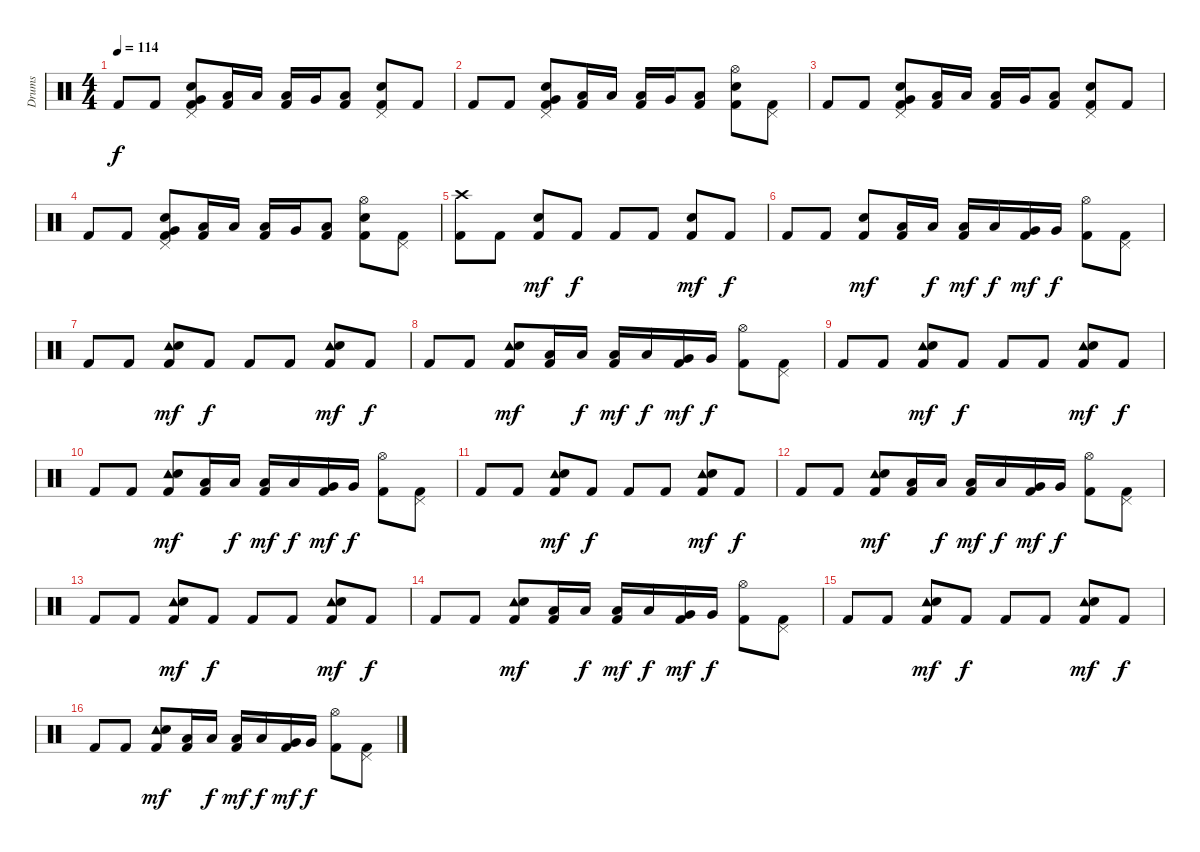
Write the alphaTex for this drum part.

\track ("Drums" "Drums") {instrument percussion}
\staff {score}
\articulation defaults
\ts (4 4)
\tempo 114
\clef neutral
\ks c "Kick (hit) 2".8{dy f} "Kick (hit) 2".8
("Pedal Hi-Hat (hit)" "Electric Snare (hit)" "Very Low Tom (hit)" "Kick (hit) 2").8 ("Low Tom (hit)" "Kick (hit) 2").16 "Low Tom (hit)".16 ("Low Tom (hit)" "Kick (hit) 2").16 "Very Low Tom (hit)".16 ("Low Floor Tom (hit)" "Kick (hit) 2").8 ("Pedal Hi-Hat (hit)" "Electric Snare (hit)" "Kick (hit) 2").8 "Kick (hit) 2".8 |
"Kick (hit) 2".8 "Kick (hit) 2".8 ("Pedal Hi-Hat (hit)" "Electric Snare (hit)" "Very Low Tom (hit)" "Kick (hit) 2").8 ("Low Tom (hit)" "Kick (hit) 2").16 "Low Tom (hit)".16 ("Low Tom (hit)" "Kick (hit) 2").16 "Very Low Tom (hit)".16 ("Low Floor Tom (hit)" "Kick (hit) 2").8 ("Hi-Hat (open)" "Electric Snare (hit)" "Kick (hit) 2").8 ("Pedal Hi-Hat (hit)" "Kick (hit) 2").8 |
"Kick (hit) 2".8 "Kick (hit) 2".8 ("Pedal Hi-Hat (hit)" "Electric Snare (hit)" "Very Low Tom (hit)" "Kick (hit) 2").8 ("Low Tom (hit)" "Kick (hit) 2").16 "Low Tom (hit)".16 ("Low Tom (hit)" "Kick (hit) 2").16 "Very Low Tom (hit)".16 ("Low Floor Tom (hit)" "Kick (hit) 2").8 ("Pedal Hi-Hat (hit)" "Electric Snare (hit)" "Kick (hit) 2").8 "Kick (hit) 2".8 |
"Kick (hit) 2".8 "Kick (hit) 2".8 ("Pedal Hi-Hat (hit)" "Electric Snare (hit)" "Very Low Tom (hit)" "Kick (hit) 2").8 ("Low Tom (hit)" "Kick (hit) 2").16 "Low Tom (hit)".16 ("Low Tom (hit)" "Kick (hit) 2").16 "Very Low Tom (hit)".16 ("Low Floor Tom (hit)" "Kick (hit) 2").8 ("Hi-Hat (open)" "Electric Snare (hit)" "Kick (hit) 2").8 ("Pedal Hi-Hat (hit)" "Kick (hit) 2").8 |
("Crash high (hit)" "Kick (hit) 2").8 "Kick (hit) 2".8 ("Electric Snare (hit)" "Kick (hit) 2").8{dy mf} "Kick (hit) 2".8{dy f} "Kick (hit) 2".8 "Kick (hit) 2".8 ("Electric Snare (hit)" "Kick (hit) 2").8{dy mf} "Kick (hit) 2".8{dy f} |
"Kick (hit) 2".8 "Kick (hit) 2".8 ("Electric Snare (hit)" "Kick (hit) 2").8{dy mf} ("Low Tom (hit)" "Kick (hit) 2").16 "Low Tom (hit)".16{dy f} ("Low Tom (hit)" "Kick (hit) 2").16{dy mf} "Low Tom (hit)".16{dy f} ("Very Low Tom (hit)" "Kick (hit) 2").16{dy mf} "Very Low Tom (hit)".16{dy f} ("Hi-Hat (open)" "Kick (hit) 2").8 ("Pedal Hi-Hat (hit)" "Kick (hit) 2").8 |
"Kick (hit) 2".8 "Kick (hit) 2".8 ("Tambourine (hit)" "Electric Snare (hit)" "Kick (hit) 2").8{dy mf} "Kick (hit) 2".8{dy f} "Kick (hit) 2".8 "Kick (hit) 2".8 ("Tambourine (hit)" "Electric Snare (hit)" "Kick (hit) 2").8{dy mf} "Kick (hit) 2".8{dy f} |
"Kick (hit) 2".8 "Kick (hit) 2".8 ("Tambourine (hit)" "Electric Snare (hit)" "Kick (hit) 2").8{dy mf} ("Low Tom (hit)" "Kick (hit) 2").16 "Low Tom (hit)".16{dy f} ("Low Tom (hit)" "Kick (hit) 2").16{dy mf} "Low Tom (hit)".16{dy f} ("Very Low Tom (hit)" "Kick (hit) 2").16{dy mf} "Very Low Tom (hit)".16{dy f} ("Hi-Hat (open)" "Kick (hit) 2").8 ("Pedal Hi-Hat (hit)" "Kick (hit) 2").8 |
"Kick (hit) 2".8 "Kick (hit) 2".8 ("Tambourine (hit)" "Electric Snare (hit)" "Kick (hit) 2").8{dy mf} "Kick (hit) 2".8{dy f} "Kick (hit) 2".8 "Kick (hit) 2".8 ("Tambourine (hit)" "Electric Snare (hit)" "Kick (hit) 2").8{dy mf} "Kick (hit) 2".8{dy f} |
"Kick (hit) 2".8 "Kick (hit) 2".8 ("Tambourine (hit)" "Electric Snare (hit)" "Kick (hit) 2").8{dy mf} ("Low Tom (hit)" "Kick (hit) 2").16 "Low Tom (hit)".16{dy f} ("Low Tom (hit)" "Kick (hit) 2").16{dy mf} "Low Tom (hit)".16{dy f} ("Very Low Tom (hit)" "Kick (hit) 2").16{dy mf} "Very Low Tom (hit)".16{dy f} ("Hi-Hat (open)" "Kick (hit) 2").8 ("Pedal Hi-Hat (hit)" "Kick (hit) 2").8 |
"Kick (hit) 2".8 "Kick (hit) 2".8 ("Tambourine (hit)" "Electric Snare (hit)" "Kick (hit) 2").8{dy mf} "Kick (hit) 2".8{dy f} "Kick (hit) 2".8 "Kick (hit) 2".8 ("Tambourine (hit)" "Electric Snare (hit)" "Kick (hit) 2").8{dy mf} "Kick (hit) 2".8{dy f} |
"Kick (hit) 2".8 "Kick (hit) 2".8 ("Tambourine (hit)" "Electric Snare (hit)" "Kick (hit) 2").8{dy mf} ("Low Tom (hit)" "Kick (hit) 2").16 "Low Tom (hit)".16{dy f} ("Low Tom (hit)" "Kick (hit) 2").16{dy mf} "Low Tom (hit)".16{dy f} ("Very Low Tom (hit)" "Kick (hit) 2").16{dy mf} "Very Low Tom (hit)".16{dy f} ("Hi-Hat (open)" "Kick (hit) 2").8 ("Pedal Hi-Hat (hit)" "Kick (hit) 2").8 |
"Kick (hit) 2".8 "Kick (hit) 2".8 ("Tambourine (hit)" "Electric Snare (hit)" "Kick (hit) 2").8{dy mf} "Kick (hit) 2".8{dy f} "Kick (hit) 2".8 "Kick (hit) 2".8 ("Tambourine (hit)" "Electric Snare (hit)" "Kick (hit) 2").8{dy mf} "Kick (hit) 2".8{dy f} |
"Kick (hit) 2".8 "Kick (hit) 2".8 ("Tambourine (hit)" "Electric Snare (hit)" "Kick (hit) 2").8{dy mf} ("Low Tom (hit)" "Kick (hit) 2").16 "Low Tom (hit)".16{dy f} ("Low Tom (hit)" "Kick (hit) 2").16{dy mf} "Low Tom (hit)".16{dy f} ("Very Low Tom (hit)" "Kick (hit) 2").16{dy mf} "Very Low Tom (hit)".16{dy f} ("Hi-Hat (open)" "Kick (hit) 2").8 ("Pedal Hi-Hat (hit)" "Kick (hit) 2").8 |
"Kick (hit) 2".8 "Kick (hit) 2".8 ("Tambourine (hit)" "Electric Snare (hit)" "Kick (hit) 2").8{dy mf} "Kick (hit) 2".8{dy f} "Kick (hit) 2".8 "Kick (hit) 2".8 ("Tambourine (hit)" "Electric Snare (hit)" "Kick (hit) 2").8{dy mf} "Kick (hit) 2".8{dy f} |
"Kick (hit) 2".8 "Kick (hit) 2".8 ("Tambourine (hit)" "Electric Snare (hit)" "Kick (hit) 2").8{dy mf} ("Low Tom (hit)" "Kick (hit) 2").16 "Low Tom (hit)".16{dy f} ("Low Tom (hit)" "Kick (hit) 2").16{dy mf} "Low Tom (hit)".16{dy f} ("Very Low Tom (hit)" "Kick (hit) 2").16{dy mf} "Very Low Tom (hit)".16{dy f} ("Hi-Hat (open)" "Kick (hit) 2").8 ("Pedal Hi-Hat (hit)" "Kick (hit) 2").8
